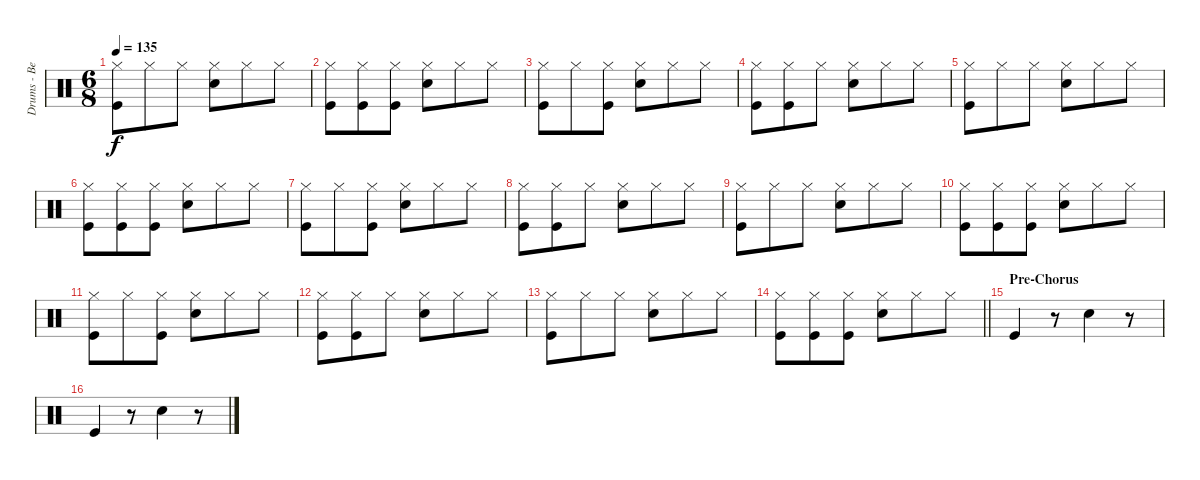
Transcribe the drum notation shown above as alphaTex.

\track ("Drums - Ben Johnston" "Drums - Be") {instrument percussion}
\staff {score}
\articulation defaults
\ts (6 8)
\tempo 135
\clef neutral
\ks c
("Hi-Hat (closed)" "Kick (hit)").8{dy f} "Hi-Hat (closed)".8 "Hi-Hat (closed)".8 ("Hi-Hat (closed)" "Snare (hit) 2").8 "Hi-Hat (closed)".8 "Hi-Hat (closed)".8 |
("Hi-Hat (closed)" "Kick (hit)").8 ("Hi-Hat (closed)" "Kick (hit)").8 ("Hi-Hat (closed)" "Kick (hit)").8 ("Hi-Hat (closed)" "Snare (hit) 2").8 "Hi-Hat (closed)".8 "Hi-Hat (closed)".8 |
("Hi-Hat (closed)" "Kick (hit)").8 "Hi-Hat (closed)".8 ("Hi-Hat (closed)" "Kick (hit)").8 ("Hi-Hat (closed)" "Snare (hit) 2").8 "Hi-Hat (closed)".8 "Hi-Hat (closed)".8 |
("Hi-Hat (closed)" "Kick (hit)").8 ("Hi-Hat (closed)" "Kick (hit)").8 "Hi-Hat (closed)".8 ("Hi-Hat (closed)" "Snare (hit) 2").8 "Hi-Hat (closed)".8 "Hi-Hat (closed)".8 |
("Hi-Hat (closed)" "Kick (hit)").8 "Hi-Hat (closed)".8 "Hi-Hat (closed)".8 ("Hi-Hat (closed)" "Snare (hit) 2").8 "Hi-Hat (closed)".8 "Hi-Hat (closed)".8 |
("Hi-Hat (closed)" "Kick (hit)").8 ("Hi-Hat (closed)" "Kick (hit)").8 ("Hi-Hat (closed)" "Kick (hit)").8 ("Hi-Hat (closed)" "Snare (hit) 2").8 "Hi-Hat (closed)".8 "Hi-Hat (closed)".8 |
("Hi-Hat (closed)" "Kick (hit)").8 "Hi-Hat (closed)".8 ("Hi-Hat (closed)" "Kick (hit)").8 ("Hi-Hat (closed)" "Snare (hit) 2").8 "Hi-Hat (closed)".8 "Hi-Hat (closed)".8 |
("Hi-Hat (closed)" "Kick (hit)").8 ("Hi-Hat (closed)" "Kick (hit)").8 "Hi-Hat (closed)".8 ("Hi-Hat (closed)" "Snare (hit) 2").8 "Hi-Hat (closed)".8 "Hi-Hat (closed)".8 |
("Hi-Hat (closed)" "Kick (hit)").8 "Hi-Hat (closed)".8 "Hi-Hat (closed)".8 ("Hi-Hat (closed)" "Snare (hit) 2").8 "Hi-Hat (closed)".8 "Hi-Hat (closed)".8 |
("Hi-Hat (closed)" "Kick (hit)").8 ("Hi-Hat (closed)" "Kick (hit)").8 ("Hi-Hat (closed)" "Kick (hit)").8 ("Hi-Hat (closed)" "Snare (hit) 2").8 "Hi-Hat (closed)".8 "Hi-Hat (closed)".8 |
("Hi-Hat (closed)" "Kick (hit)").8 "Hi-Hat (closed)".8 ("Hi-Hat (closed)" "Kick (hit)").8 ("Hi-Hat (closed)" "Snare (hit) 2").8 "Hi-Hat (closed)".8 "Hi-Hat (closed)".8 |
("Hi-Hat (closed)" "Kick (hit)").8 ("Hi-Hat (closed)" "Kick (hit)").8 "Hi-Hat (closed)".8 ("Hi-Hat (closed)" "Snare (hit) 2").8 "Hi-Hat (closed)".8 "Hi-Hat (closed)".8 |
("Hi-Hat (closed)" "Kick (hit)").8 "Hi-Hat (closed)".8 "Hi-Hat (closed)".8 ("Hi-Hat (closed)" "Snare (hit) 2").8 "Hi-Hat (closed)".8 "Hi-Hat (closed)".8 |
\barLineRight lightlight
("Hi-Hat (closed)" "Kick (hit)").8 ("Hi-Hat (closed)" "Kick (hit)").8 ("Hi-Hat (closed)" "Kick (hit)").8 ("Hi-Hat (closed)" "Snare (hit) 2").8 "Hi-Hat (closed)".8 "Hi-Hat (closed)".8 |
\section ("" "Pre-Chorus")
"Kick (hit)".4 r.8 "Snare (hit) 2".4 r.8 |
"Kick (hit)".4 r.8 "Snare (hit) 2".4 r.8
